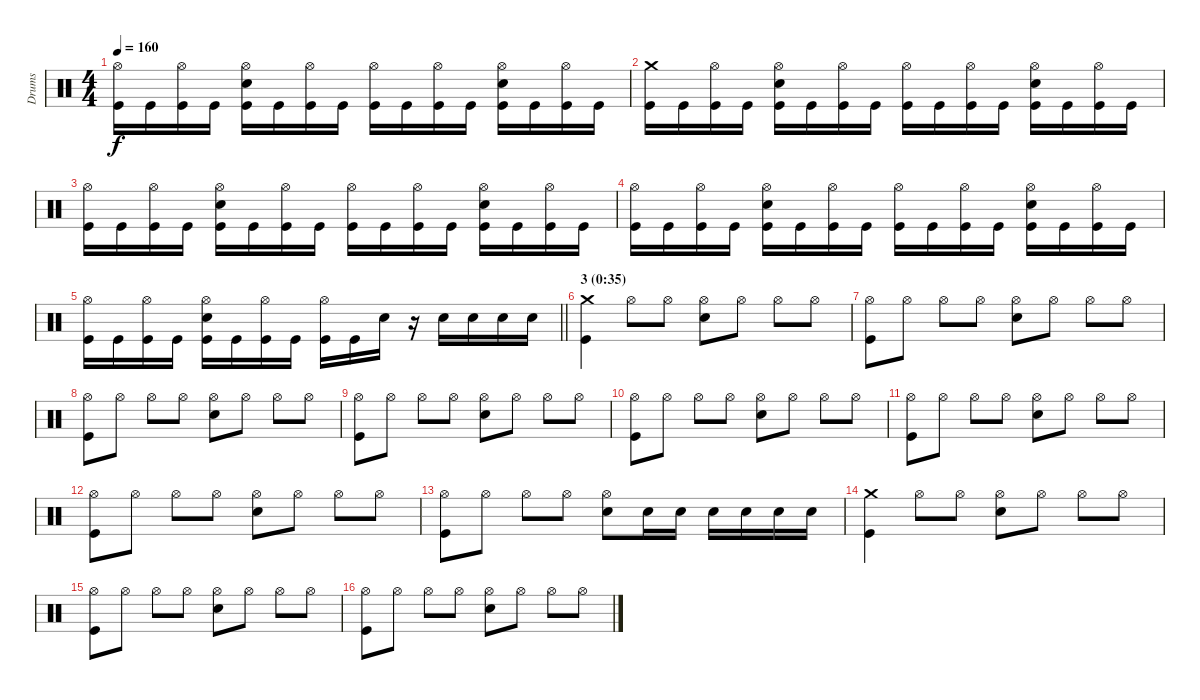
\track ("Drums" "Drums") {instrument percussion}
\staff {score}
\articulation defaults
\ts (4 4)
\tempo 160
\clef neutral
\ks c
("Hi-Hat (open)" "Kick (hit)").16{dy f} "Kick (hit)".16 ("Hi-Hat (open)" "Kick (hit)").16 "Kick (hit)".16 ("Hi-Hat (open)" "Electric Snare (hit)" "Kick (hit)").16 "Kick (hit)".16 ("Hi-Hat (open)" "Kick (hit)").16 "Kick (hit)".16 ("Hi-Hat (open)" "Kick (hit)").16 "Kick (hit)".16 ("Hi-Hat (open)" "Kick (hit)").16 "Kick (hit)".16 ("Hi-Hat (open)" "Electric Snare (hit)" "Kick (hit)").16 "Kick (hit)".16 ("Hi-Hat (open)" "Kick (hit)").16 "Kick (hit)".16 |
("Crash medium (hit)" "Kick (hit)").16 "Kick (hit)".16 ("Hi-Hat (open)" "Kick (hit)").16 "Kick (hit)".16 ("Hi-Hat (open)" "Electric Snare (hit)" "Kick (hit)").16 "Kick (hit)".16 ("Hi-Hat (open)" "Kick (hit)").16 "Kick (hit)".16 ("Hi-Hat (open)" "Kick (hit)").16 "Kick (hit)".16 ("Hi-Hat (open)" "Kick (hit)").16 "Kick (hit)".16 ("Hi-Hat (open)" "Electric Snare (hit)" "Kick (hit)").16 "Kick (hit)".16 ("Hi-Hat (open)" "Kick (hit)").16 "Kick (hit)".16 |
("Hi-Hat (open)" "Kick (hit)").16 "Kick (hit)".16 ("Hi-Hat (open)" "Kick (hit)").16 "Kick (hit)".16 ("Hi-Hat (open)" "Electric Snare (hit)" "Kick (hit)").16 "Kick (hit)".16 ("Hi-Hat (open)" "Kick (hit)").16 "Kick (hit)".16 ("Hi-Hat (open)" "Kick (hit)").16 "Kick (hit)".16 ("Hi-Hat (open)" "Kick (hit)").16 "Kick (hit)".16 ("Hi-Hat (open)" "Electric Snare (hit)" "Kick (hit)").16 "Kick (hit)".16 ("Hi-Hat (open)" "Kick (hit)").16 "Kick (hit)".16 |
("Hi-Hat (open)" "Kick (hit)").16 "Kick (hit)".16 ("Hi-Hat (open)" "Kick (hit)").16 "Kick (hit)".16 ("Hi-Hat (open)" "Electric Snare (hit)" "Kick (hit)").16 "Kick (hit)".16 ("Hi-Hat (open)" "Kick (hit)").16 "Kick (hit)".16 ("Hi-Hat (open)" "Kick (hit)").16 "Kick (hit)".16 ("Hi-Hat (open)" "Kick (hit)").16 "Kick (hit)".16 ("Hi-Hat (open)" "Electric Snare (hit)" "Kick (hit)").16 "Kick (hit)".16 ("Hi-Hat (open)" "Kick (hit)").16 "Kick (hit)".16 |
\barLineRight lightlight
("Hi-Hat (open)" "Kick (hit)").16 "Kick (hit)".16 ("Hi-Hat (open)" "Kick (hit)").16 "Kick (hit)".16 ("Hi-Hat (open)" "Electric Snare (hit)" "Kick (hit)").16 "Kick (hit)".16 ("Hi-Hat (open)" "Kick (hit)").16 "Kick (hit)".16 ("Hi-Hat (open)" "Kick (hit)").16 "Kick (hit)".16 "Electric Snare (hit)".16 r.16 "Electric Snare (hit)".16 "Electric Snare (hit)".16 "Electric Snare (hit)".16 "Electric Snare (hit)".16 |
\section ("" "3 (0:35)")
("Crash medium (hit)" "Kick (hit)").4 "Hi-Hat (open)".8 "Hi-Hat (open)".8 ("Hi-Hat (open)" "Electric Snare (hit)").8 "Hi-Hat (open)".8 "Hi-Hat (open)".8 "Hi-Hat (open)".8 |
("Hi-Hat (open)" "Kick (hit)").8 "Hi-Hat (open)".8 "Hi-Hat (open)".8 "Hi-Hat (open)".8 ("Hi-Hat (open)" "Electric Snare (hit)").8 "Hi-Hat (open)".8 "Hi-Hat (open)".8 "Hi-Hat (open)".8 |
("Hi-Hat (open)" "Kick (hit)").8 "Hi-Hat (open)".8 "Hi-Hat (open)".8 "Hi-Hat (open)".8 ("Hi-Hat (open)" "Electric Snare (hit)").8 "Hi-Hat (open)".8 "Hi-Hat (open)".8 "Hi-Hat (open)".8 |
("Hi-Hat (open)" "Kick (hit)").8 "Hi-Hat (open)".8 "Hi-Hat (open)".8 "Hi-Hat (open)".8 ("Hi-Hat (open)" "Electric Snare (hit)").8 "Hi-Hat (open)".8 "Hi-Hat (open)".8 "Hi-Hat (open)".8 |
("Hi-Hat (open)" "Kick (hit)").8 "Hi-Hat (open)".8 "Hi-Hat (open)".8 "Hi-Hat (open)".8 ("Hi-Hat (open)" "Electric Snare (hit)").8 "Hi-Hat (open)".8 "Hi-Hat (open)".8 "Hi-Hat (open)".8 |
("Hi-Hat (open)" "Kick (hit)").8 "Hi-Hat (open)".8 "Hi-Hat (open)".8 "Hi-Hat (open)".8 ("Hi-Hat (open)" "Electric Snare (hit)").8 "Hi-Hat (open)".8 "Hi-Hat (open)".8 "Hi-Hat (open)".8 |
("Hi-Hat (open)" "Kick (hit)").8 "Hi-Hat (open)".8 "Hi-Hat (open)".8 "Hi-Hat (open)".8 ("Hi-Hat (open)" "Electric Snare (hit)").8 "Hi-Hat (open)".8 "Hi-Hat (open)".8 "Hi-Hat (open)".8 |
("Hi-Hat (open)" "Kick (hit)").8 "Hi-Hat (open)".8 "Hi-Hat (open)".8 "Hi-Hat (open)".8 ("Hi-Hat (open)" "Electric Snare (hit)").8 "Electric Snare (hit)".16 "Electric Snare (hit)".16 "Electric Snare (hit)".16 "Electric Snare (hit)".16 "Electric Snare (hit)".16 "Electric Snare (hit)".16 |
("Crash medium (hit)" "Kick (hit)").4 "Hi-Hat (open)".8 "Hi-Hat (open)".8 ("Hi-Hat (open)" "Electric Snare (hit)").8 "Hi-Hat (open)".8 "Hi-Hat (open)".8 "Hi-Hat (open)".8 |
("Hi-Hat (open)" "Kick (hit)").8 "Hi-Hat (open)".8 "Hi-Hat (open)".8 "Hi-Hat (open)".8 ("Hi-Hat (open)" "Electric Snare (hit)").8 "Hi-Hat (open)".8 "Hi-Hat (open)".8 "Hi-Hat (open)".8 |
("Hi-Hat (open)" "Kick (hit)").8 "Hi-Hat (open)".8 "Hi-Hat (open)".8 "Hi-Hat (open)".8 ("Hi-Hat (open)" "Electric Snare (hit)").8 "Hi-Hat (open)".8 "Hi-Hat (open)".8 "Hi-Hat (open)".8
